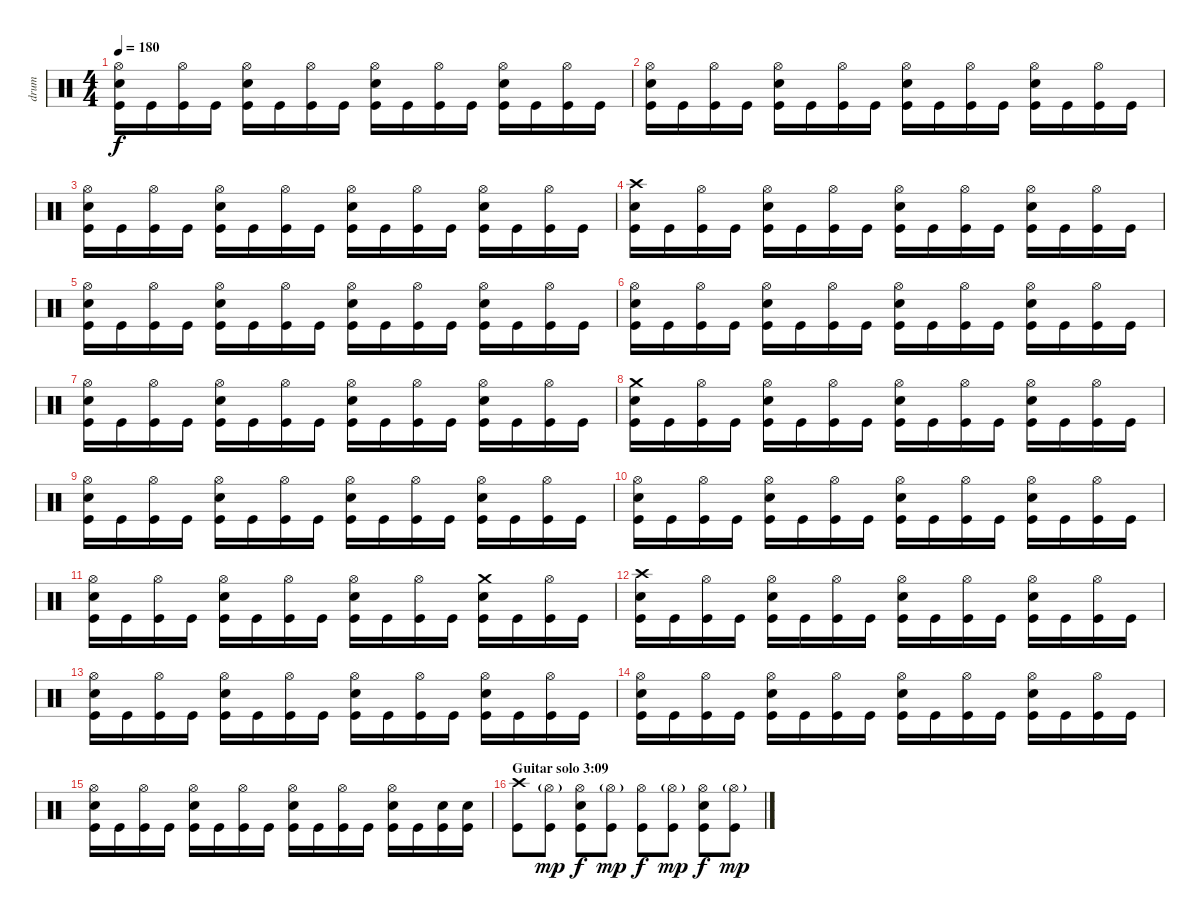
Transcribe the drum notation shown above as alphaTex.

\track ("drum" "drum") {instrument percussion}
\staff {score}
\articulation defaults
\ts (4 4)
\tempo 180
\clef neutral
\ks c
("Hi-Hat (open)" "Snare (hit) 2" "Kick (hit)").16{dy f} "Kick (hit)".16 ("Hi-Hat (open)" "Kick (hit)").16 "Kick (hit)".16 ("Hi-Hat (open)" "Snare (hit) 2" "Kick (hit)").16 "Kick (hit)".16 ("Hi-Hat (open)" "Kick (hit)").16 "Kick (hit)".16 ("Hi-Hat (open)" "Snare (hit) 2" "Kick (hit)").16 "Kick (hit)".16 ("Hi-Hat (open)" "Kick (hit)").16 "Kick (hit)".16 ("Hi-Hat (open)" "Snare (hit) 2" "Kick (hit)").16 "Kick (hit)".16 ("Hi-Hat (open)" "Kick (hit)").16 "Kick (hit)".16 |
("Hi-Hat (open)" "Snare (hit) 2" "Kick (hit)").16 "Kick (hit)".16 ("Hi-Hat (open)" "Kick (hit)").16 "Kick (hit)".16 ("Hi-Hat (open)" "Snare (hit) 2" "Kick (hit)").16 "Kick (hit)".16 ("Hi-Hat (open)" "Kick (hit)").16 "Kick (hit)".16 ("Hi-Hat (open)" "Snare (hit) 2" "Kick (hit)").16 "Kick (hit)".16 ("Hi-Hat (open)" "Kick (hit)").16 "Kick (hit)".16 ("Hi-Hat (open)" "Snare (hit) 2" "Kick (hit)").16 "Kick (hit)".16 ("Hi-Hat (open)" "Kick (hit)").16 "Kick (hit)".16 |
("Hi-Hat (open)" "Snare (hit) 2" "Kick (hit)").16 "Kick (hit)".16 ("Hi-Hat (open)" "Kick (hit)").16 "Kick (hit)".16 ("Hi-Hat (open)" "Snare (hit) 2" "Kick (hit)").16 "Kick (hit)".16 ("Hi-Hat (open)" "Kick (hit)").16 "Kick (hit)".16 ("Hi-Hat (open)" "Snare (hit) 2" "Kick (hit)").16 "Kick (hit)".16 ("Hi-Hat (open)" "Kick (hit)").16 "Kick (hit)".16 ("Hi-Hat (open)" "Snare (hit) 2" "Kick (hit)").16 "Kick (hit)".16 ("Hi-Hat (open)" "Kick (hit)").16 "Kick (hit)".16 |
("Crash high (hit)" "Snare (hit) 2" "Kick (hit)").16 "Kick (hit)".16 ("Hi-Hat (open)" "Kick (hit)").16 "Kick (hit)".16 ("Hi-Hat (open)" "Snare (hit) 2" "Kick (hit)").16 "Kick (hit)".16 ("Hi-Hat (open)" "Kick (hit)").16 "Kick (hit)".16 ("Hi-Hat (open)" "Snare (hit) 2" "Kick (hit)").16 "Kick (hit)".16 ("Hi-Hat (open)" "Kick (hit)").16 "Kick (hit)".16 ("Hi-Hat (open)" "Snare (hit) 2" "Kick (hit)").16 "Kick (hit)".16 ("Hi-Hat (open)" "Kick (hit)").16 "Kick (hit)".16 |
("Hi-Hat (open)" "Snare (hit) 2" "Kick (hit)").16 "Kick (hit)".16 ("Hi-Hat (open)" "Kick (hit)").16 "Kick (hit)".16 ("Hi-Hat (open)" "Snare (hit) 2" "Kick (hit)").16 "Kick (hit)".16 ("Hi-Hat (open)" "Kick (hit)").16 "Kick (hit)".16 ("Hi-Hat (open)" "Snare (hit) 2" "Kick (hit)").16 "Kick (hit)".16 ("Hi-Hat (open)" "Kick (hit)").16 "Kick (hit)".16 ("Hi-Hat (open)" "Snare (hit) 2" "Kick (hit)").16 "Kick (hit)".16 ("Hi-Hat (open)" "Kick (hit)").16 "Kick (hit)".16 |
("Hi-Hat (open)" "Snare (hit) 2" "Kick (hit)").16 "Kick (hit)".16 ("Hi-Hat (open)" "Kick (hit)").16 "Kick (hit)".16 ("Hi-Hat (open)" "Snare (hit) 2" "Kick (hit)").16 "Kick (hit)".16 ("Hi-Hat (open)" "Kick (hit)").16 "Kick (hit)".16 ("Hi-Hat (open)" "Snare (hit) 2" "Kick (hit)").16 "Kick (hit)".16 ("Hi-Hat (open)" "Kick (hit)").16 "Kick (hit)".16 ("Hi-Hat (open)" "Snare (hit) 2" "Kick (hit)").16 "Kick (hit)".16 ("Hi-Hat (open)" "Kick (hit)").16 "Kick (hit)".16 |
("Hi-Hat (open)" "Snare (hit) 2" "Kick (hit)").16 "Kick (hit)".16 ("Hi-Hat (open)" "Kick (hit)").16 "Kick (hit)".16 ("Hi-Hat (open)" "Snare (hit) 2" "Kick (hit)").16 "Kick (hit)".16 ("Hi-Hat (open)" "Kick (hit)").16 "Kick (hit)".16 ("Hi-Hat (open)" "Snare (hit) 2" "Kick (hit)").16 "Kick (hit)".16 ("Hi-Hat (open)" "Kick (hit)").16 "Kick (hit)".16 ("Hi-Hat (open)" "Snare (hit) 2" "Kick (hit)").16 "Kick (hit)".16 ("Hi-Hat (open)" "Kick (hit)").16 "Kick (hit)".16 |
("Crash medium (hit)" "Snare (hit) 2" "Kick (hit)").16 "Kick (hit)".16 ("Hi-Hat (open)" "Kick (hit)").16 "Kick (hit)".16 ("Hi-Hat (open)" "Snare (hit) 2" "Kick (hit)").16 "Kick (hit)".16 ("Hi-Hat (open)" "Kick (hit)").16 "Kick (hit)".16 ("Hi-Hat (open)" "Snare (hit) 2" "Kick (hit)").16 "Kick (hit)".16 ("Hi-Hat (open)" "Kick (hit)").16 "Kick (hit)".16 ("Hi-Hat (open)" "Snare (hit) 2" "Kick (hit)").16 "Kick (hit)".16 ("Hi-Hat (open)" "Kick (hit)").16 "Kick (hit)".16 |
("Hi-Hat (open)" "Snare (hit) 2" "Kick (hit)").16 "Kick (hit)".16 ("Hi-Hat (open)" "Kick (hit)").16 "Kick (hit)".16 ("Hi-Hat (open)" "Snare (hit) 2" "Kick (hit)").16 "Kick (hit)".16 ("Hi-Hat (open)" "Kick (hit)").16 "Kick (hit)".16 ("Hi-Hat (open)" "Snare (hit) 2" "Kick (hit)").16 "Kick (hit)".16 ("Hi-Hat (open)" "Kick (hit)").16 "Kick (hit)".16 ("Hi-Hat (open)" "Snare (hit) 2" "Kick (hit)").16 "Kick (hit)".16 ("Hi-Hat (open)" "Kick (hit)").16 "Kick (hit)".16 |
("Hi-Hat (open)" "Snare (hit) 2" "Kick (hit)").16 "Kick (hit)".16 ("Hi-Hat (open)" "Kick (hit)").16 "Kick (hit)".16 ("Hi-Hat (open)" "Snare (hit) 2" "Kick (hit)").16 "Kick (hit)".16 ("Hi-Hat (open)" "Kick (hit)").16 "Kick (hit)".16 ("Hi-Hat (open)" "Snare (hit) 2" "Kick (hit)").16 "Kick (hit)".16 ("Hi-Hat (open)" "Kick (hit)").16 "Kick (hit)".16 ("Hi-Hat (open)" "Snare (hit) 2" "Kick (hit)").16 "Kick (hit)".16 ("Hi-Hat (open)" "Kick (hit)").16 "Kick (hit)".16 |
("Hi-Hat (open)" "Snare (hit) 2" "Kick (hit)").16 "Kick (hit)".16 ("Hi-Hat (open)" "Kick (hit)").16 "Kick (hit)".16 ("Hi-Hat (open)" "Snare (hit) 2" "Kick (hit)").16 "Kick (hit)".16 ("Hi-Hat (open)" "Kick (hit)").16 "Kick (hit)".16 ("Hi-Hat (open)" "Snare (hit) 2" "Kick (hit)").16 "Kick (hit)".16 ("Hi-Hat (open)" "Kick (hit)").16 "Kick (hit)".16 ("Crash medium (hit)" "Snare (hit) 2" "Kick (hit)").16 "Kick (hit)".16 ("Hi-Hat (open)" "Kick (hit)").16 "Kick (hit)".16 |
("Crash high (hit)" "Snare (hit) 2" "Kick (hit)").16 "Kick (hit)".16 ("Hi-Hat (open)" "Kick (hit)").16 "Kick (hit)".16 ("Hi-Hat (open)" "Snare (hit) 2" "Kick (hit)").16 "Kick (hit)".16 ("Hi-Hat (open)" "Kick (hit)").16 "Kick (hit)".16 ("Hi-Hat (open)" "Snare (hit) 2" "Kick (hit)").16 "Kick (hit)".16 ("Hi-Hat (open)" "Kick (hit)").16 "Kick (hit)".16 ("Hi-Hat (open)" "Snare (hit) 2" "Kick (hit)").16 "Kick (hit)".16 ("Hi-Hat (open)" "Kick (hit)").16 "Kick (hit)".16 |
("Hi-Hat (open)" "Snare (hit) 2" "Kick (hit)").16 "Kick (hit)".16 ("Hi-Hat (open)" "Kick (hit)").16 "Kick (hit)".16 ("Hi-Hat (open)" "Snare (hit) 2" "Kick (hit)").16 "Kick (hit)".16 ("Hi-Hat (open)" "Kick (hit)").16 "Kick (hit)".16 ("Hi-Hat (open)" "Snare (hit) 2" "Kick (hit)").16 "Kick (hit)".16 ("Hi-Hat (open)" "Kick (hit)").16 "Kick (hit)".16 ("Hi-Hat (open)" "Snare (hit) 2" "Kick (hit)").16 "Kick (hit)".16 ("Hi-Hat (open)" "Kick (hit)").16 "Kick (hit)".16 |
("Hi-Hat (open)" "Snare (hit) 2" "Kick (hit)").16 "Kick (hit)".16 ("Hi-Hat (open)" "Kick (hit)").16 "Kick (hit)".16 ("Hi-Hat (open)" "Snare (hit) 2" "Kick (hit)").16 "Kick (hit)".16 ("Hi-Hat (open)" "Kick (hit)").16 "Kick (hit)".16 ("Hi-Hat (open)" "Snare (hit) 2" "Kick (hit)").16 "Kick (hit)".16 ("Hi-Hat (open)" "Kick (hit)").16 "Kick (hit)".16 ("Hi-Hat (open)" "Snare (hit) 2" "Kick (hit)").16 "Kick (hit)".16 ("Hi-Hat (open)" "Kick (hit)").16 "Kick (hit)".16 |
("Hi-Hat (open)" "Snare (hit) 2" "Kick (hit)").16 "Kick (hit)".16 ("Hi-Hat (open)" "Kick (hit)").16 "Kick (hit)".16 ("Hi-Hat (open)" "Snare (hit) 2" "Kick (hit)").16 "Kick (hit)".16 ("Hi-Hat (open)" "Kick (hit)").16 "Kick (hit)".16 ("Hi-Hat (open)" "Snare (hit) 2" "Kick (hit)").16 "Kick (hit)".16 ("Hi-Hat (open)" "Kick (hit)").16 "Kick (hit)".16 ("Hi-Hat (open)" "Snare (hit) 2" "Kick (hit)").16 "Kick (hit)".16 ("Snare (hit) 2" "Kick (hit)").16 ("Snare (hit) 2" "Kick (hit)").16 |
\section ("" "Guitar solo 3:09")
("Crash high (hit)" "Kick (hit)").8 ("Hi-Hat (open)"{g} "Kick (hit)").8{dy mp} ("Hi-Hat (open)" "Snare (hit) 2" "Kick (hit)").8{dy f} ("Hi-Hat (open)"{g} "Kick (hit)").8{dy mp} ("Hi-Hat (open)" "Kick (hit)").8{dy f} ("Hi-Hat (open)"{g} "Kick (hit)").8{dy mp} ("Hi-Hat (open)" "Snare (hit) 2" "Kick (hit)").8{dy f} ("Hi-Hat (open)"{g} "Kick (hit)").8{dy mp}
